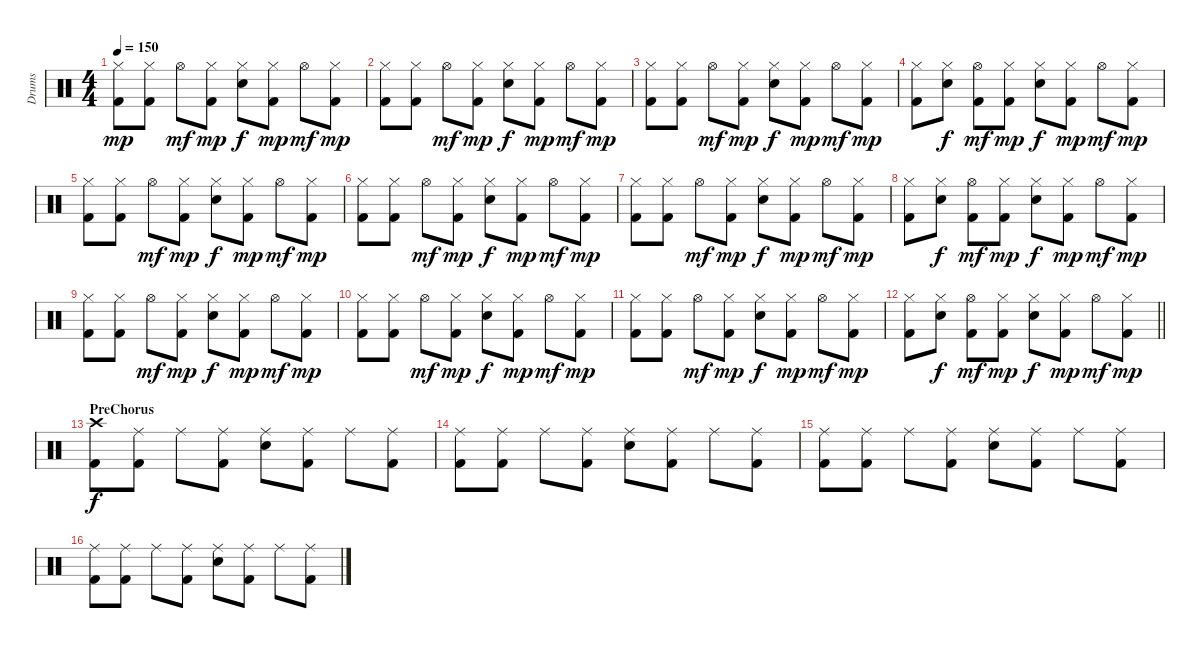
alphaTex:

\track ("Drums" "Drums") {instrument percussion}
\staff {score}
\articulation defaults
\ts (4 4)
\tempo 150
\clef neutral
\ks c
("Hi-Hat (closed)" "Kick (hit) 2").8{dy mp} ("Hi-Hat (closed)" "Kick (hit) 2").8 "Hi-Hat (open)".8{dy mf} ("Hi-Hat (closed)" "Kick (hit) 2").8{dy mp} ("Hi-Hat (closed)" "Electric Snare (hit)").8{dy f} ("Hi-Hat (closed)" "Kick (hit) 2").8{dy mp} "Hi-Hat (open)".8{dy mf} ("Hi-Hat (closed)" "Kick (hit) 2").8{dy mp} |
("Hi-Hat (closed)" "Kick (hit) 2").8 ("Hi-Hat (closed)" "Kick (hit) 2").8 "Hi-Hat (open)".8{dy mf} ("Hi-Hat (closed)" "Kick (hit) 2").8{dy mp} ("Hi-Hat (closed)" "Electric Snare (hit)").8{dy f} ("Hi-Hat (closed)" "Kick (hit) 2").8{dy mp} "Hi-Hat (open)".8{dy mf} ("Hi-Hat (closed)" "Kick (hit) 2").8{dy mp} |
("Hi-Hat (closed)" "Kick (hit) 2").8 ("Hi-Hat (closed)" "Kick (hit) 2").8 "Hi-Hat (open)".8{dy mf} ("Hi-Hat (closed)" "Kick (hit) 2").8{dy mp} ("Hi-Hat (closed)" "Electric Snare (hit)").8{dy f} ("Hi-Hat (closed)" "Kick (hit) 2").8{dy mp} "Hi-Hat (open)".8{dy mf} ("Hi-Hat (closed)" "Kick (hit) 2").8{dy mp} |
("Hi-Hat (closed)" "Kick (hit) 2").8 ("Hi-Hat (closed)" "Electric Snare (hit)").8{dy f} ("Hi-Hat (open)" "Kick (hit) 2").8{dy mf} ("Hi-Hat (closed)" "Kick (hit) 2").8{dy mp} ("Hi-Hat (closed)" "Electric Snare (hit)").8{dy f} ("Hi-Hat (closed)" "Kick (hit) 2").8{dy mp} "Hi-Hat (open)".8{dy mf} ("Hi-Hat (closed)" "Kick (hit) 2").8{dy mp} |
("Hi-Hat (closed)" "Kick (hit) 2").8 ("Hi-Hat (closed)" "Kick (hit) 2").8 "Hi-Hat (open)".8{dy mf} ("Hi-Hat (closed)" "Kick (hit) 2").8{dy mp} ("Hi-Hat (closed)" "Electric Snare (hit)").8{dy f} ("Hi-Hat (closed)" "Kick (hit) 2").8{dy mp} "Hi-Hat (open)".8{dy mf} ("Hi-Hat (closed)" "Kick (hit) 2").8{dy mp} |
("Hi-Hat (closed)" "Kick (hit) 2").8 ("Hi-Hat (closed)" "Kick (hit) 2").8 "Hi-Hat (open)".8{dy mf} ("Hi-Hat (closed)" "Kick (hit) 2").8{dy mp} ("Hi-Hat (closed)" "Electric Snare (hit)").8{dy f} ("Hi-Hat (closed)" "Kick (hit) 2").8{dy mp} "Hi-Hat (open)".8{dy mf} ("Hi-Hat (closed)" "Kick (hit) 2").8{dy mp} |
("Hi-Hat (closed)" "Kick (hit) 2").8 ("Hi-Hat (closed)" "Kick (hit) 2").8 "Hi-Hat (open)".8{dy mf} ("Hi-Hat (closed)" "Kick (hit) 2").8{dy mp} ("Hi-Hat (closed)" "Electric Snare (hit)").8{dy f} ("Hi-Hat (closed)" "Kick (hit) 2").8{dy mp} "Hi-Hat (open)".8{dy mf} ("Hi-Hat (closed)" "Kick (hit) 2").8{dy mp} |
("Hi-Hat (closed)" "Kick (hit) 2").8 ("Hi-Hat (closed)" "Electric Snare (hit)").8{dy f} ("Hi-Hat (open)" "Kick (hit) 2").8{dy mf} ("Hi-Hat (closed)" "Kick (hit) 2").8{dy mp} ("Hi-Hat (closed)" "Electric Snare (hit)").8{dy f} ("Hi-Hat (closed)" "Kick (hit) 2").8{dy mp} "Hi-Hat (open)".8{dy mf} ("Hi-Hat (closed)" "Kick (hit) 2").8{dy mp} |
("Hi-Hat (closed)" "Kick (hit) 2").8 ("Hi-Hat (closed)" "Kick (hit) 2").8 "Hi-Hat (open)".8{dy mf} ("Hi-Hat (closed)" "Kick (hit) 2").8{dy mp} ("Hi-Hat (closed)" "Electric Snare (hit)").8{dy f} ("Hi-Hat (closed)" "Kick (hit) 2").8{dy mp} "Hi-Hat (open)".8{dy mf} ("Hi-Hat (closed)" "Kick (hit) 2").8{dy mp} |
("Hi-Hat (closed)" "Kick (hit) 2").8 ("Hi-Hat (closed)" "Kick (hit) 2").8 "Hi-Hat (open)".8{dy mf} ("Hi-Hat (closed)" "Kick (hit) 2").8{dy mp} ("Hi-Hat (closed)" "Electric Snare (hit)").8{dy f} ("Hi-Hat (closed)" "Kick (hit) 2").8{dy mp} "Hi-Hat (open)".8{dy mf} ("Hi-Hat (closed)" "Kick (hit) 2").8{dy mp} |
("Hi-Hat (closed)" "Kick (hit) 2").8 ("Hi-Hat (closed)" "Kick (hit) 2").8 "Hi-Hat (open)".8{dy mf} ("Hi-Hat (closed)" "Kick (hit) 2").8{dy mp} ("Hi-Hat (closed)" "Electric Snare (hit)").8{dy f} ("Hi-Hat (closed)" "Kick (hit) 2").8{dy mp} "Hi-Hat (open)".8{dy mf} ("Hi-Hat (closed)" "Kick (hit) 2").8{dy mp} |
\barLineRight lightlight
("Hi-Hat (closed)" "Kick (hit) 2").8 ("Hi-Hat (closed)" "Electric Snare (hit)").8{dy f} ("Hi-Hat (open)" "Kick (hit) 2").8{dy mf} ("Hi-Hat (closed)" "Kick (hit) 2").8{dy mp} ("Hi-Hat (closed)" "Electric Snare (hit)").8{dy f} ("Hi-Hat (closed)" "Kick (hit) 2").8{dy mp} "Hi-Hat (open)".8{dy mf} ("Hi-Hat (closed)" "Kick (hit) 2").8{dy mp} |
\section ("" "PreChorus")
("Crash high (hit)" "Kick (hit) 2").8{dy f} ("Ride (middle)" "Kick (hit) 2").8 "Ride (middle)".8 ("Ride (middle)" "Kick (hit) 2").8 ("Ride (middle)" "Electric Snare (hit)").8 ("Ride (middle)" "Kick (hit) 2").8 "Ride (middle)".8 ("Ride (middle)" "Kick (hit) 2").8 |
("Ride (middle)" "Kick (hit) 2").8 ("Ride (middle)" "Kick (hit) 2").8 "Ride (middle)".8 ("Ride (middle)" "Kick (hit) 2").8 ("Ride (middle)" "Electric Snare (hit)").8 ("Ride (middle)" "Kick (hit) 2").8 "Ride (middle)".8 ("Ride (middle)" "Kick (hit) 2").8 |
("Ride (middle)" "Kick (hit) 2").8 ("Ride (middle)" "Kick (hit) 2").8 "Ride (middle)".8 ("Ride (middle)" "Kick (hit) 2").8 ("Ride (middle)" "Electric Snare (hit)").8 ("Ride (middle)" "Kick (hit) 2").8 "Ride (middle)".8 ("Ride (middle)" "Kick (hit) 2").8 |
("Ride (middle)" "Kick (hit) 2").8 ("Ride (middle)" "Kick (hit) 2").8 "Ride (middle)".8 ("Ride (middle)" "Kick (hit) 2").8 ("Ride (middle)" "Electric Snare (hit)").8 ("Ride (middle)" "Kick (hit) 2").8 "Ride (middle)".8 ("Ride (middle)" "Kick (hit) 2").8
